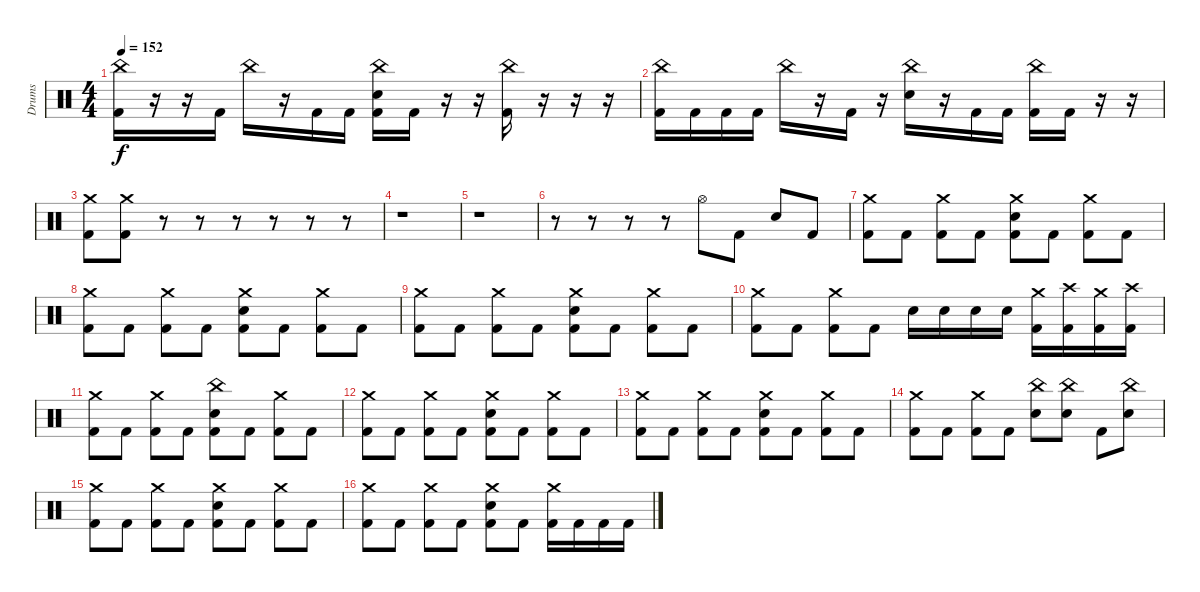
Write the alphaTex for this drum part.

\track ("Drums" "Drums") {instrument percussion}
\staff {score}
\articulation defaults
\ts (4 4)
\tempo 152
\clef neutral
\ks c
("China (hit)" "Kick (hit) 2").16{dy f} r.16 r.16 "Kick (hit) 2".16 "China (hit)".16 r.16 "Kick (hit) 2".16 "Kick (hit) 2".16 ("China (hit)" "Electric Snare (hit)" "Kick (hit) 2").16 "Kick (hit) 2".16 r.16 r.16 ("China (hit)" "Kick (hit) 2").16 r.16 r.16 r.16 |
("China (hit)" "Kick (hit) 2").16 "Kick (hit) 2".16 "Kick (hit) 2".16 "Kick (hit) 2".16 "China (hit)".16 r.16 "Kick (hit) 2".16 r.16 ("China (hit)" "Electric Snare (hit)").16 r.16 "Kick (hit) 2".16 "Kick (hit) 2".16 ("China (hit)" "Kick (hit) 2").16 "Kick (hit) 2".16 r.16 r.16 |
("Crash medium (hit)" "Kick (hit) 2").8 ("Crash medium (hit)" "Kick (hit) 2").8 r.8 r.8 r.8 r.8 r.8 r.8 |
r.1 |
r.1 |
r.8 r.8 r.8 r.8 "Hi-Hat (open)".8 "Kick (hit) 2".8 "Electric Snare (hit)".8 "Kick (hit) 2".8 |
("Crash medium (hit)" "Kick (hit) 2").8 "Kick (hit) 2".8 ("Crash medium (hit)" "Kick (hit) 2").8 "Kick (hit) 2".8 ("Crash medium (hit)" "Electric Snare (hit)" "Kick (hit) 2").8 "Kick (hit) 2".8 ("Crash medium (hit)" "Kick (hit) 2").8 "Kick (hit) 2".8 |
("Crash medium (hit)" "Kick (hit) 2").8 "Kick (hit) 2".8 ("Crash medium (hit)" "Kick (hit) 2").8 "Kick (hit) 2".8 ("Crash medium (hit)" "Electric Snare (hit)" "Kick (hit) 2").8 "Kick (hit) 2".8 ("Crash medium (hit)" "Kick (hit) 2").8 "Kick (hit) 2".8 |
("Crash medium (hit)" "Kick (hit) 2").8 "Kick (hit) 2".8 ("Crash medium (hit)" "Kick (hit) 2").8 "Kick (hit) 2".8 ("Crash medium (hit)" "Electric Snare (hit)" "Kick (hit) 2").8 "Kick (hit) 2".8 ("Crash medium (hit)" "Kick (hit) 2").8 "Kick (hit) 2".8 |
("Crash medium (hit)" "Kick (hit) 2").8 "Kick (hit) 2".8 ("Crash medium (hit)" "Kick (hit) 2").8 "Kick (hit) 2".8 "Electric Snare (hit)".16 "Electric Snare (hit)".16 "Electric Snare (hit)".16 "Electric Snare (hit)".16 ("Crash medium (hit)" "Kick (hit) 2").16 ("Crash high (hit)" "Kick (hit) 2").16 ("Crash medium (hit)" "Kick (hit) 2").16 ("Crash high (hit)" "Kick (hit) 2").16 |
("Crash medium (hit)" "Kick (hit) 2").8 "Kick (hit) 2".8 ("Crash medium (hit)" "Kick (hit) 2").8 "Kick (hit) 2".8 ("China (hit)" "Electric Snare (hit)" "Kick (hit) 2").8 "Kick (hit) 2".8 ("Crash medium (hit)" "Kick (hit) 2").8 "Kick (hit) 2".8 |
("Crash medium (hit)" "Kick (hit) 2").8 "Kick (hit) 2".8 ("Crash medium (hit)" "Kick (hit) 2").8 "Kick (hit) 2".8 ("Crash medium (hit)" "Electric Snare (hit)" "Kick (hit) 2").8 "Kick (hit) 2".8 ("Crash medium (hit)" "Kick (hit) 2").8 "Kick (hit) 2".8 |
("Crash medium (hit)" "Kick (hit) 2").8 "Kick (hit) 2".8 ("Crash medium (hit)" "Kick (hit) 2").8 "Kick (hit) 2".8 ("Crash medium (hit)" "Electric Snare (hit)" "Kick (hit) 2").8 "Kick (hit) 2".8 ("Crash medium (hit)" "Kick (hit) 2").8 "Kick (hit) 2".8 |
("Crash medium (hit)" "Kick (hit) 2").8 "Kick (hit) 2".8 ("Crash medium (hit)" "Kick (hit) 2").8 "Kick (hit) 2".8 ("China (hit)" "Electric Snare (hit)").8 ("China (hit)" "Electric Snare (hit)").8 "Kick (hit) 2".8 ("China (hit)" "Electric Snare (hit)").8 |
("Crash medium (hit)" "Kick (hit) 2").8 "Kick (hit) 2".8 ("Crash medium (hit)" "Kick (hit) 2").8 "Kick (hit) 2".8 ("Crash medium (hit)" "Electric Snare (hit)" "Kick (hit) 2").8 "Kick (hit) 2".8 ("Crash medium (hit)" "Kick (hit) 2").8 "Kick (hit) 2".8 |
("Crash medium (hit)" "Kick (hit) 2").8 "Kick (hit) 2".8 ("Crash medium (hit)" "Kick (hit) 2").8 "Kick (hit) 2".8 ("Crash medium (hit)" "Electric Snare (hit)" "Kick (hit) 2").8 "Kick (hit) 2".8 ("Crash medium (hit)" "Kick (hit) 2").16 "Kick (hit) 2".16 "Kick (hit) 2".16 "Kick (hit) 2".16
